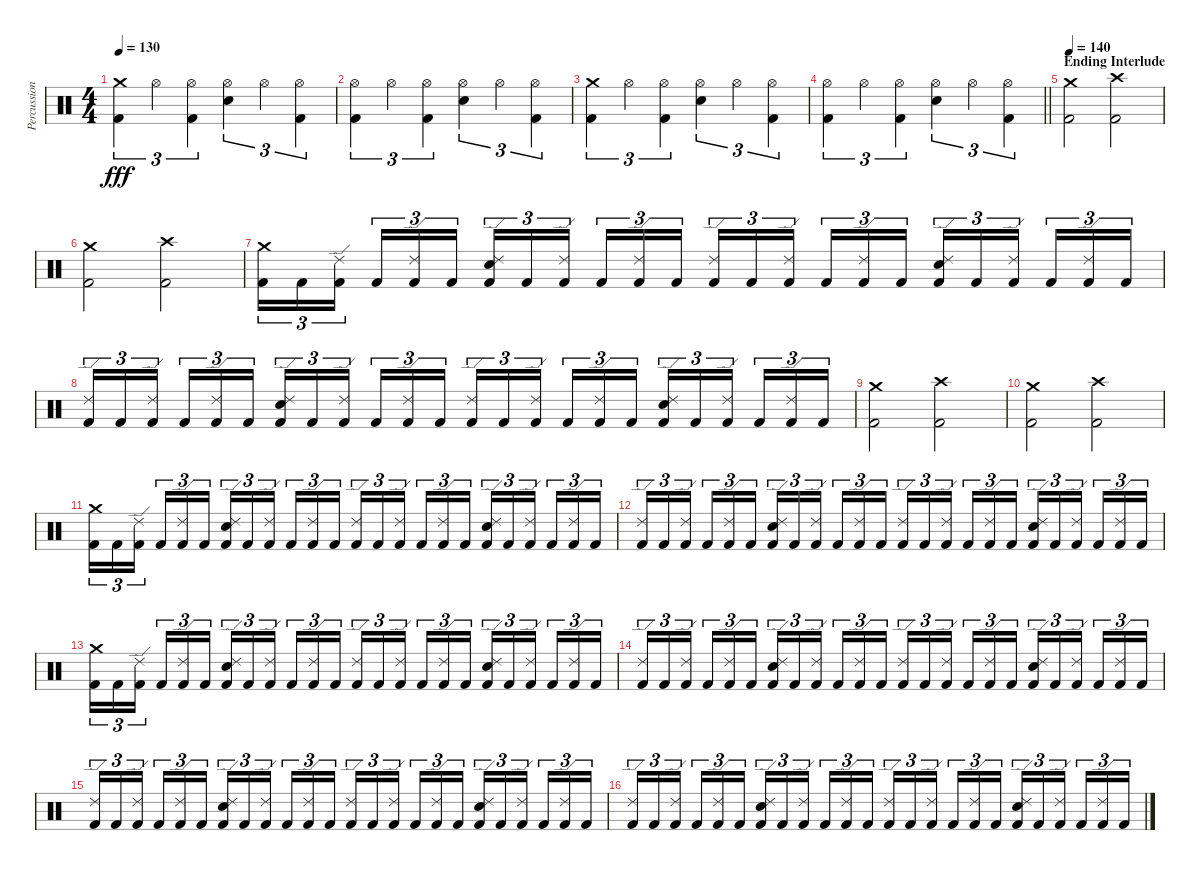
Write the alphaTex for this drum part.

\track ("Percussions" "Percussion") {instrument percussion}
\staff {score}
\articulation defaults
\ts (4 4)
\tempo 130
\clef neutral
\ks c
("Crash medium (hit)" "Kick (hit) 2").4{tu (3 2) dy fff} "Hi-Hat (open)".4{tu (3 2)} ("Hi-Hat (open)" "Kick (hit) 2").4{tu (3 2)} ("Hi-Hat (open)" "Snare (hit) 2").4{tu (3 2)} "Hi-Hat (open)".4{tu (3 2)} ("Hi-Hat (open)" "Kick (hit) 2").4{tu (3 2)} |
("Hi-Hat (open)" "Kick (hit) 2").4{tu (3 2)} "Hi-Hat (open)".4{tu (3 2)} ("Hi-Hat (open)" "Kick (hit) 2").4{tu (3 2)} ("Hi-Hat (open)" "Snare (hit) 2").4{tu (3 2)} "Hi-Hat (open)".4{tu (3 2)} ("Hi-Hat (open)" "Kick (hit) 2").4{tu (3 2)} |
("Crash medium (hit)" "Kick (hit) 2").4{tu (3 2)} "Hi-Hat (open)".4{tu (3 2)} ("Hi-Hat (open)" "Kick (hit) 2").4{tu (3 2)} ("Hi-Hat (open)" "Snare (hit) 2").4{tu (3 2)} "Hi-Hat (open)".4{tu (3 2)} ("Hi-Hat (open)" "Kick (hit) 2").4{tu (3 2)} |
\barLineRight lightlight
("Hi-Hat (open)" "Kick (hit) 2").4{tu (3 2)} "Hi-Hat (open)".4{tu (3 2)} ("Hi-Hat (open)" "Kick (hit) 2").4{tu (3 2)} ("Hi-Hat (open)" "Snare (hit) 2").4{tu (3 2)} "Hi-Hat (open)".4{tu (3 2)} ("Hi-Hat (open)" "Kick (hit) 2").4{tu (3 2)} |
\section ("" "Ending Interlude")
\tempo 140
("Crash medium (hit)" "Kick (hit) 2").2 ("Crash high (hit)" "Kick (hit) 2").2 |
("Crash medium (hit)" "Kick (hit) 2").2 ("Crash high (hit)" "Kick (hit) 2").2 |
("Crash medium (hit)" "Kick (hit) 2").16{tu (3 2)} "Kick (hit) 2".16{tu (3 2)} ("Ride (edge) 2" "Kick (hit) 2").16{tu (3 2) beam splitsecondary} "Kick (hit) 2".16{tu (3 2)} ("Ride (edge) 2" "Kick (hit) 2").16{tu (3 2)} "Kick (hit) 2".16{tu (3 2)} ("Ride (edge) 2" "Snare (hit) 2" "Kick (hit) 2").16{tu (3 2)} "Kick (hit) 2".16{tu (3 2)} ("Ride (edge) 2" "Kick (hit) 2").16{tu (3 2) beam splitsecondary} "Kick (hit) 2".16{tu (3 2)} ("Ride (edge) 2" "Kick (hit) 2").16{tu (3 2)} "Kick (hit) 2".16{tu (3 2)} ("Ride (edge) 2" "Kick (hit) 2").16{tu (3 2)} "Kick (hit) 2".16{tu (3 2)} ("Ride (edge) 2" "Kick (hit) 2").16{tu (3 2) beam splitsecondary} "Kick (hit) 2".16{tu (3 2)} ("Ride (edge) 2" "Kick (hit) 2").16{tu (3 2)} "Kick (hit) 2".16{tu (3 2)} ("Ride (edge) 2" "Snare (hit) 2" "Kick (hit) 2").16{tu (3 2)} "Kick (hit) 2".16{tu (3 2)} ("Ride (edge) 2" "Kick (hit) 2").16{tu (3 2) beam splitsecondary} "Kick (hit) 2".16{tu (3 2)} ("Ride (edge) 2" "Kick (hit) 2").16{tu (3 2)} "Kick (hit) 2".16{tu (3 2)} |
("Ride (edge) 2" "Kick (hit) 2").16{tu (3 2)} "Kick (hit) 2".16{tu (3 2)} ("Ride (edge) 2" "Kick (hit) 2").16{tu (3 2) beam splitsecondary} "Kick (hit) 2".16{tu (3 2)} ("Ride (edge) 2" "Kick (hit) 2").16{tu (3 2)} "Kick (hit) 2".16{tu (3 2)} ("Ride (edge) 2" "Snare (hit) 2" "Kick (hit) 2").16{tu (3 2)} "Kick (hit) 2".16{tu (3 2)} ("Ride (edge) 2" "Kick (hit) 2").16{tu (3 2) beam splitsecondary} "Kick (hit) 2".16{tu (3 2)} ("Ride (edge) 2" "Kick (hit) 2").16{tu (3 2)} "Kick (hit) 2".16{tu (3 2)} ("Ride (edge) 2" "Kick (hit) 2").16{tu (3 2)} "Kick (hit) 2".16{tu (3 2)} ("Ride (edge) 2" "Kick (hit) 2").16{tu (3 2) beam splitsecondary} "Kick (hit) 2".16{tu (3 2)} ("Ride (edge) 2" "Kick (hit) 2").16{tu (3 2)} "Kick (hit) 2".16{tu (3 2)} ("Ride (edge) 2" "Snare (hit) 2" "Kick (hit) 2").16{tu (3 2)} "Kick (hit) 2".16{tu (3 2)} ("Ride (edge) 2" "Kick (hit) 2").16{tu (3 2) beam splitsecondary} "Kick (hit) 2".16{tu (3 2)} ("Ride (edge) 2" "Kick (hit) 2").16{tu (3 2)} "Kick (hit) 2".16{tu (3 2)} |
("Crash medium (hit)" "Kick (hit) 2").2 ("Crash high (hit)" "Kick (hit) 2").2 |
("Crash medium (hit)" "Kick (hit) 2").2 ("Crash high (hit)" "Kick (hit) 2").2 |
("Crash medium (hit)" "Kick (hit) 2").16{tu (3 2)} "Kick (hit) 2".16{tu (3 2)} ("Ride (edge) 2" "Kick (hit) 2").16{tu (3 2) beam splitsecondary} "Kick (hit) 2".16{tu (3 2)} ("Ride (edge) 2" "Kick (hit) 2").16{tu (3 2)} "Kick (hit) 2".16{tu (3 2)} ("Ride (edge) 2" "Snare (hit) 2" "Kick (hit) 2").16{tu (3 2)} "Kick (hit) 2".16{tu (3 2)} ("Ride (edge) 2" "Kick (hit) 2").16{tu (3 2) beam splitsecondary} "Kick (hit) 2".16{tu (3 2)} ("Ride (edge) 2" "Kick (hit) 2").16{tu (3 2)} "Kick (hit) 2".16{tu (3 2)} ("Ride (edge) 2" "Kick (hit) 2").16{tu (3 2)} "Kick (hit) 2".16{tu (3 2)} ("Ride (edge) 2" "Kick (hit) 2").16{tu (3 2) beam splitsecondary} "Kick (hit) 2".16{tu (3 2)} ("Ride (edge) 2" "Kick (hit) 2").16{tu (3 2)} "Kick (hit) 2".16{tu (3 2)} ("Ride (edge) 2" "Snare (hit) 2" "Kick (hit) 2").16{tu (3 2)} "Kick (hit) 2".16{tu (3 2)} ("Ride (edge) 2" "Kick (hit) 2").16{tu (3 2) beam splitsecondary} "Kick (hit) 2".16{tu (3 2)} ("Ride (edge) 2" "Kick (hit) 2").16{tu (3 2)} "Kick (hit) 2".16{tu (3 2)} |
("Ride (edge) 2" "Kick (hit) 2").16{tu (3 2)} "Kick (hit) 2".16{tu (3 2)} ("Ride (edge) 2" "Kick (hit) 2").16{tu (3 2) beam splitsecondary} "Kick (hit) 2".16{tu (3 2)} ("Ride (edge) 2" "Kick (hit) 2").16{tu (3 2)} "Kick (hit) 2".16{tu (3 2)} ("Ride (edge) 2" "Snare (hit) 2" "Kick (hit) 2").16{tu (3 2)} "Kick (hit) 2".16{tu (3 2)} ("Ride (edge) 2" "Kick (hit) 2").16{tu (3 2) beam splitsecondary} "Kick (hit) 2".16{tu (3 2)} ("Ride (edge) 2" "Kick (hit) 2").16{tu (3 2)} "Kick (hit) 2".16{tu (3 2)} ("Ride (edge) 2" "Kick (hit) 2").16{tu (3 2)} "Kick (hit) 2".16{tu (3 2)} ("Ride (edge) 2" "Kick (hit) 2").16{tu (3 2) beam splitsecondary} "Kick (hit) 2".16{tu (3 2)} ("Ride (edge) 2" "Kick (hit) 2").16{tu (3 2)} "Kick (hit) 2".16{tu (3 2)} ("Ride (edge) 2" "Snare (hit) 2" "Kick (hit) 2").16{tu (3 2)} "Kick (hit) 2".16{tu (3 2)} ("Ride (edge) 2" "Kick (hit) 2").16{tu (3 2) beam splitsecondary} "Kick (hit) 2".16{tu (3 2)} ("Ride (edge) 2" "Kick (hit) 2").16{tu (3 2)} "Kick (hit) 2".16{tu (3 2)} |
("Crash medium (hit)" "Kick (hit) 2").16{tu (3 2)} "Kick (hit) 2".16{tu (3 2)} ("Ride (edge) 2" "Kick (hit) 2").16{tu (3 2) beam splitsecondary} "Kick (hit) 2".16{tu (3 2)} ("Ride (edge) 2" "Kick (hit) 2").16{tu (3 2)} "Kick (hit) 2".16{tu (3 2)} ("Ride (edge) 2" "Snare (hit) 2" "Kick (hit) 2").16{tu (3 2)} "Kick (hit) 2".16{tu (3 2)} ("Ride (edge) 2" "Kick (hit) 2").16{tu (3 2) beam splitsecondary} "Kick (hit) 2".16{tu (3 2)} ("Ride (edge) 2" "Kick (hit) 2").16{tu (3 2)} "Kick (hit) 2".16{tu (3 2)} ("Ride (edge) 2" "Kick (hit) 2").16{tu (3 2)} "Kick (hit) 2".16{tu (3 2)} ("Ride (edge) 2" "Kick (hit) 2").16{tu (3 2) beam splitsecondary} "Kick (hit) 2".16{tu (3 2)} ("Ride (edge) 2" "Kick (hit) 2").16{tu (3 2)} "Kick (hit) 2".16{tu (3 2)} ("Ride (edge) 2" "Snare (hit) 2" "Kick (hit) 2").16{tu (3 2)} "Kick (hit) 2".16{tu (3 2)} ("Ride (edge) 2" "Kick (hit) 2").16{tu (3 2) beam splitsecondary} "Kick (hit) 2".16{tu (3 2)} ("Ride (edge) 2" "Kick (hit) 2").16{tu (3 2)} "Kick (hit) 2".16{tu (3 2)} |
("Ride (edge) 2" "Kick (hit) 2").16{tu (3 2)} "Kick (hit) 2".16{tu (3 2)} ("Ride (edge) 2" "Kick (hit) 2").16{tu (3 2) beam splitsecondary} "Kick (hit) 2".16{tu (3 2)} ("Ride (edge) 2" "Kick (hit) 2").16{tu (3 2)} "Kick (hit) 2".16{tu (3 2)} ("Ride (edge) 2" "Snare (hit) 2" "Kick (hit) 2").16{tu (3 2)} "Kick (hit) 2".16{tu (3 2)} ("Ride (edge) 2" "Kick (hit) 2").16{tu (3 2) beam splitsecondary} "Kick (hit) 2".16{tu (3 2)} ("Ride (edge) 2" "Kick (hit) 2").16{tu (3 2)} "Kick (hit) 2".16{tu (3 2)} ("Ride (edge) 2" "Kick (hit) 2").16{tu (3 2)} "Kick (hit) 2".16{tu (3 2)} ("Ride (edge) 2" "Kick (hit) 2").16{tu (3 2) beam splitsecondary} "Kick (hit) 2".16{tu (3 2)} ("Ride (edge) 2" "Kick (hit) 2").16{tu (3 2)} "Kick (hit) 2".16{tu (3 2)} ("Ride (edge) 2" "Snare (hit) 2" "Kick (hit) 2").16{tu (3 2)} "Kick (hit) 2".16{tu (3 2)} ("Ride (edge) 2" "Kick (hit) 2").16{tu (3 2) beam splitsecondary} "Kick (hit) 2".16{tu (3 2)} ("Ride (edge) 2" "Kick (hit) 2").16{tu (3 2)} "Kick (hit) 2".16{tu (3 2)} |
("Ride (edge) 2" "Kick (hit) 2").16{tu (3 2)} "Kick (hit) 2".16{tu (3 2)} ("Ride (edge) 2" "Kick (hit) 2").16{tu (3 2) beam splitsecondary} "Kick (hit) 2".16{tu (3 2)} ("Ride (edge) 2" "Kick (hit) 2").16{tu (3 2)} "Kick (hit) 2".16{tu (3 2)} ("Ride (edge) 2" "Snare (hit) 2" "Kick (hit) 2").16{tu (3 2)} "Kick (hit) 2".16{tu (3 2)} ("Ride (edge) 2" "Kick (hit) 2").16{tu (3 2) beam splitsecondary} "Kick (hit) 2".16{tu (3 2)} ("Ride (edge) 2" "Kick (hit) 2").16{tu (3 2)} "Kick (hit) 2".16{tu (3 2)} ("Ride (edge) 2" "Kick (hit) 2").16{tu (3 2)} "Kick (hit) 2".16{tu (3 2)} ("Ride (edge) 2" "Kick (hit) 2").16{tu (3 2) beam splitsecondary} "Kick (hit) 2".16{tu (3 2)} ("Ride (edge) 2" "Kick (hit) 2").16{tu (3 2)} "Kick (hit) 2".16{tu (3 2)} ("Ride (edge) 2" "Snare (hit) 2" "Kick (hit) 2").16{tu (3 2)} "Kick (hit) 2".16{tu (3 2)} ("Ride (edge) 2" "Kick (hit) 2").16{tu (3 2) beam splitsecondary} "Kick (hit) 2".16{tu (3 2)} ("Ride (edge) 2" "Kick (hit) 2").16{tu (3 2)} "Kick (hit) 2".16{tu (3 2)} |
("Ride (edge) 2" "Kick (hit) 2").16{tu (3 2)} "Kick (hit) 2".16{tu (3 2)} ("Ride (edge) 2" "Kick (hit) 2").16{tu (3 2) beam splitsecondary} "Kick (hit) 2".16{tu (3 2)} ("Ride (edge) 2" "Kick (hit) 2").16{tu (3 2)} "Kick (hit) 2".16{tu (3 2)} ("Ride (edge) 2" "Snare (hit) 2" "Kick (hit) 2").16{tu (3 2)} "Kick (hit) 2".16{tu (3 2)} ("Ride (edge) 2" "Kick (hit) 2").16{tu (3 2) beam splitsecondary} "Kick (hit) 2".16{tu (3 2)} ("Ride (edge) 2" "Kick (hit) 2").16{tu (3 2)} "Kick (hit) 2".16{tu (3 2)} ("Ride (edge) 2" "Kick (hit) 2").16{tu (3 2)} "Kick (hit) 2".16{tu (3 2)} ("Ride (edge) 2" "Kick (hit) 2").16{tu (3 2) beam splitsecondary} "Kick (hit) 2".16{tu (3 2)} ("Ride (edge) 2" "Kick (hit) 2").16{tu (3 2)} "Kick (hit) 2".16{tu (3 2)} ("Ride (edge) 2" "Snare (hit) 2" "Kick (hit) 2").16{tu (3 2)} "Kick (hit) 2".16{tu (3 2)} ("Ride (edge) 2" "Kick (hit) 2").16{tu (3 2) beam splitsecondary} "Kick (hit) 2".16{tu (3 2)} ("Ride (edge) 2" "Kick (hit) 2").16{tu (3 2)} "Kick (hit) 2".16{tu (3 2)}
